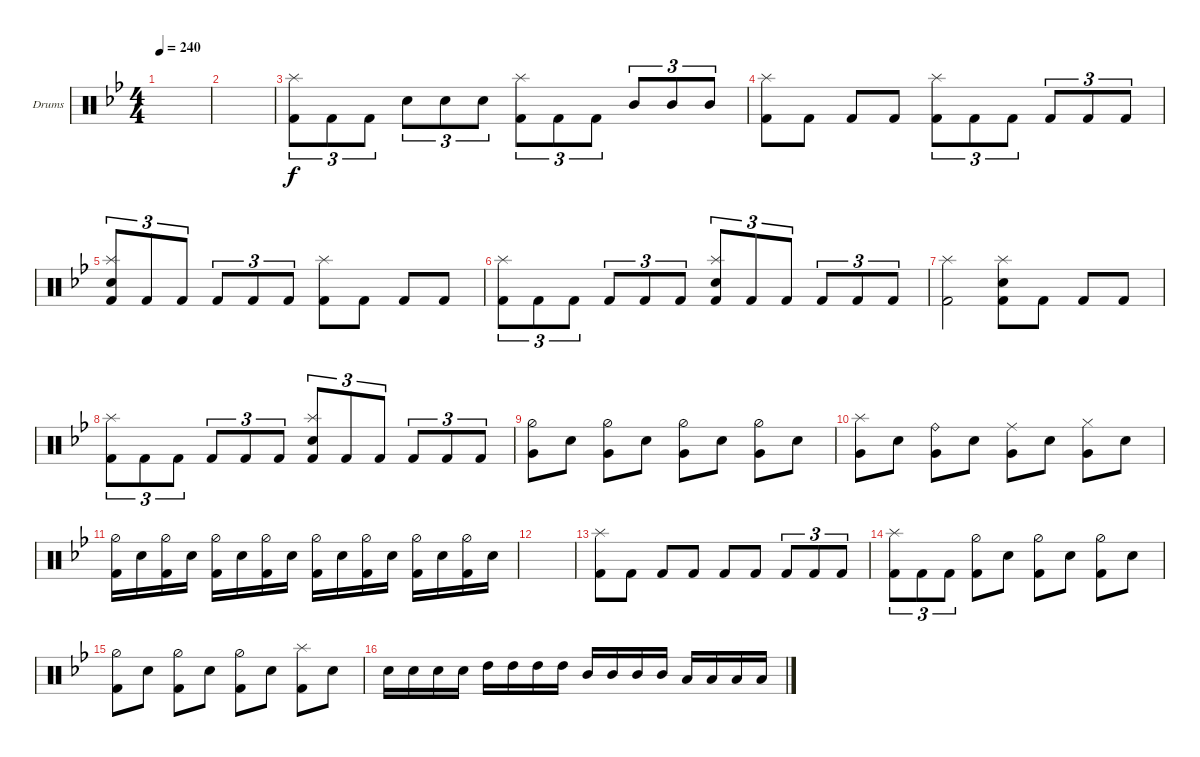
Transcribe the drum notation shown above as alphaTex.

\defaultSystemsLayout 4
\bracketExtendMode groupsimilarinstruments
\firstSystemTrackNameOrientation horizontal
\otherSystemsTrackNameOrientation horizontal
\track ("Drumkit" "Drums") {instrument percussion}
\staff {score}
\articulation defaults
\ts (4 4)
\tempo 240
\clef neutral
\ks bb
|
|
("Kick (hit) 2"{acc forcenatural} "Splash (hit)"{acc forcenatural}).8{tu (3 2) beam Down} "Kick (hit) 2"{acc forcenatural}.8{tu (3 2) beam Down} "Kick (hit) 2"{acc forcenatural}.8{tu (3 2) beam Down} "Snare (hit) 2"{acc forcenatural}.8{tu (3 2) beam Down} "Snare (hit) 2"{acc forcenatural}.8{tu (3 2) beam Down} "Snare (hit) 2"{acc forcenatural}.8{tu (3 2) beam Down} ("Kick (hit) 2"{acc forcenatural} "Splash (hit)"{acc forcenatural}).8{tu (3 2) beam Down} "Kick (hit) 2"{acc forcenatural}.8{tu (3 2) beam Down} "Kick (hit) 2"{acc forcenatural}.8{tu (3 2) beam Down} "Mid Tom (hit)"{acc forcenatural}.8{tu (3 2) beam Up} "Mid Tom (hit)"{acc forcenatural}.8{tu (3 2) beam Up} "Mid Tom (hit)"{acc forcenatural}.8{tu (3 2) beam Up} |
("Splash (hit)"{acc forcenatural} "Kick (hit) 2"{acc forcenatural}).8{beam Down} "Kick (hit) 2"{acc forcenatural}.8{beam Down} "Kick (hit) 2"{acc forcenatural}.8{beam Up} "Kick (hit) 2"{acc forcenatural}.8{beam Up} ("Kick (hit) 2"{acc forcenatural} "Splash (hit)"{acc forcenatural}).8{tu (3 2) beam Down} "Kick (hit) 2"{acc forcenatural}.8{tu (3 2) beam Down} "Kick (hit) 2"{acc forcenatural}.8{tu (3 2) beam Down} "Kick (hit) 2"{acc forcenatural}.8{tu (3 2) beam Up} "Kick (hit) 2"{acc forcenatural}.8{tu (3 2) beam Up} "Kick (hit) 2"{acc forcenatural}.8{tu (3 2) beam Up} |
("Kick (hit) 2"{acc forcenatural} "Splash (hit)"{acc forcenatural} "Snare (hit) 2"{acc forcenatural}).8{tu (3 2) beam Up} "Kick (hit) 2"{acc forcenatural}.8{tu (3 2) beam Up} "Kick (hit) 2"{acc forcenatural}.8{tu (3 2) beam Up} "Kick (hit) 2"{acc forcenatural}.8{tu (3 2) beam Up} "Kick (hit) 2"{acc forcenatural}.8{tu (3 2) beam Up} "Kick (hit) 2"{acc forcenatural}.8{tu (3 2) beam Up} ("Kick (hit) 2"{acc forcenatural} "Splash (hit)"{acc forcenatural}).8{beam Down} "Kick (hit) 2"{acc forcenatural}.8{beam Down} "Kick (hit) 2"{acc forcenatural}.8{beam Up} "Kick (hit) 2"{acc forcenatural}.8{beam Up} |
("Kick (hit) 2"{acc forcenatural} "Splash (hit)"{acc forcenatural}).8{tu (3 2) beam Down} "Kick (hit) 2"{acc forcenatural}.8{tu (3 2) beam Down} "Kick (hit) 2"{acc forcenatural}.8{tu (3 2) beam Down} "Kick (hit) 2"{acc forcenatural}.8{tu (3 2) beam Up} "Kick (hit) 2"{acc forcenatural}.8{tu (3 2) beam Up} "Kick (hit) 2"{acc forcenatural}.8{tu (3 2) beam Up} ("Kick (hit) 2"{acc forcenatural} "Splash (hit)"{acc forcenatural} "Snare (hit) 2"{acc forcenatural}).8{tu (3 2) beam Up} "Kick (hit) 2"{acc forcenatural}.8{tu (3 2) beam Up} "Kick (hit) 2"{acc forcenatural}.8{tu (3 2) beam Up} "Kick (hit) 2"{acc forcenatural}.8{tu (3 2) beam Up} "Kick (hit) 2"{acc forcenatural}.8{tu (3 2) beam Up} "Kick (hit) 2"{acc forcenatural}.8{tu (3 2) beam Up} |
("Kick (hit) 2"{acc forcenatural} "Splash (hit)"{acc forcenatural}).2{beam Down} ("Kick (hit) 2"{acc forcenatural} "Splash (hit)"{acc forcenatural} "Snare (hit) 2"{acc forcenatural}).8{beam Down} "Kick (hit) 2"{acc forcenatural}.8{beam Down} "Kick (hit) 2"{acc forcenatural}.8{beam Up} "Kick (hit) 2"{acc forcenatural}.8{beam Up} |
("Kick (hit) 2"{acc forcenatural} "Splash (hit)"{acc forcenatural}).8{tu (3 2) beam Down} "Kick (hit) 2"{acc forcenatural}.8{tu (3 2) beam Down} "Kick (hit) 2"{acc forcenatural}.8{tu (3 2) beam Down} "Kick (hit) 2"{acc forcenatural}.8{tu (3 2) beam Up} "Kick (hit) 2"{acc forcenatural}.8{tu (3 2) beam Up} "Kick (hit) 2"{acc forcenatural}.8{tu (3 2) beam Up} ("Kick (hit) 2"{acc forcenatural} "Splash (hit)"{acc forcenatural} "Snare (hit) 2"{acc forcenatural}).8{tu (3 2) beam Up} "Kick (hit) 2"{acc forcenatural}.8{tu (3 2) beam Up} "Kick (hit) 2"{acc forcenatural}.8{tu (3 2) beam Up} "Kick (hit) 2"{acc forcenatural}.8{tu (3 2) beam Up} "Kick (hit) 2"{acc forcenatural}.8{tu (3 2) beam Up} "Kick (hit) 2"{acc forcenatural}.8{tu (3 2) beam Up} |
("Very Low Tom (hit)"{acc forcenatural} "Hi-Hat (half)"{acc forcenatural}).8{beam Down} "Snare (hit) 2"{acc forcenatural}.8{beam Down} ("Very Low Tom (hit)"{acc forcenatural} "Hi-Hat (half)"{acc forcenatural}).8{beam Down} "Snare (hit) 2"{acc forcenatural}.8{beam Down} ("Very Low Tom (hit)"{acc forcenatural} "Hi-Hat (half)"{acc forcenatural}).8{beam Down} "Snare (hit) 2"{acc forcenatural}.8{beam Down} ("Very Low Tom (hit)"{acc forcenatural} "Hi-Hat (half)"{acc forcenatural}).8{beam Down} "Snare (hit) 2"{acc forcenatural}.8{beam Down} |
("Very Low Tom (hit)"{acc forcenatural} "Splash (hit)"{acc forcenatural}).8{beam Down} "Snare (hit) 2"{acc forcenatural}.8{beam Down} ("Very Low Tom (hit)"{acc forcenatural} "Ride (bell)"{acc forcenatural}).8{beam Down} "Snare (hit) 2"{acc forcenatural}.8{beam Down} ("Very Low Tom (hit)"{acc forcenatural} "Ride (middle)"{acc forcenatural}).8{beam Down} "Snare (hit) 2"{acc forcenatural}.8{beam Down} ("Very Low Tom (hit)"{acc forcenatural} "Hi-Hat (closed)"{acc forcenatural}).8{beam Down} "Snare (hit) 2"{acc forcenatural}.8{beam Down} |
("Hi-Hat (half)"{acc forcenatural} "Kick (hit) 2"{acc forcenatural}).16{beam Down} "Snare (hit) 2"{acc forcenatural}.16{beam Down} ("Hi-Hat (half)"{acc forcenatural} "Kick (hit) 2"{acc forcenatural}).16{beam Down} "Snare (hit) 2"{acc forcenatural}.16{beam Down} ("Hi-Hat (half)"{acc forcenatural} "Kick (hit) 2"{acc forcenatural}).16{beam Down} "Snare (hit) 2"{acc forcenatural}.16{beam Down} ("Hi-Hat (half)"{acc forcenatural} "Kick (hit) 2"{acc forcenatural}).16{beam Down} "Snare (hit) 2"{acc forcenatural}.16{beam Down} ("Hi-Hat (half)"{acc forcenatural} "Kick (hit) 2"{acc forcenatural}).16{beam Down} "Snare (hit) 2"{acc forcenatural}.16{beam Down} ("Hi-Hat (half)"{acc forcenatural} "Kick (hit) 2"{acc forcenatural}).16{beam Down} "Snare (hit) 2"{acc forcenatural}.16{beam Down} ("Hi-Hat (half)"{acc forcenatural} "Kick (hit) 2"{acc forcenatural}).16{beam Down} "Snare (hit) 2"{acc forcenatural}.16{beam Down} ("Hi-Hat (half)"{acc forcenatural} "Kick (hit) 2"{acc forcenatural}).16{beam Down} "Snare (hit) 2"{acc forcenatural}.16{beam Down} |
|
("Splash (hit)"{acc forcenatural} "Kick (hit) 2"{acc forcenatural}).8{beam Down} "Kick (hit) 2"{acc forcenatural}.8{beam Down} "Kick (hit) 2"{acc forcenatural}.8{beam Up} "Kick (hit) 2"{acc forcenatural}.8{beam Up} "Kick (hit) 2"{acc forcenatural}.8{beam Up} "Kick (hit) 2"{acc forcenatural}.8{beam Up} "Kick (hit) 2"{acc forcenatural}.8{tu (3 2) beam Up} "Kick (hit) 2"{acc forcenatural}.8{tu (3 2) beam Up} "Kick (hit) 2"{acc forcenatural}.8{tu (3 2) beam Up} |
("Kick (hit) 2"{acc forcenatural} "Splash (hit)"{acc forcenatural}).8{tu (3 2) beam Down} "Kick (hit) 2"{acc forcenatural}.8{tu (3 2) beam Down} "Kick (hit) 2"{acc forcenatural}.8{tu (3 2) beam Down} ("Hi-Hat (half)"{acc forcenatural} "Kick (hit) 2"{acc forcenatural}).8{beam Down} "Snare (hit) 2"{acc forcenatural}.8{beam Down} ("Hi-Hat (half)"{acc forcenatural} "Kick (hit) 2"{acc forcenatural}).8{beam Down} "Snare (hit) 2"{acc forcenatural}.8{beam Down} ("Hi-Hat (half)"{acc forcenatural} "Kick (hit) 2"{acc forcenatural}).8{beam Down} "Snare (hit) 2"{acc forcenatural}.8{beam Down} |
("Hi-Hat (half)"{acc forcenatural} "Kick (hit) 2"{acc forcenatural}).8{beam Down} "Snare (hit) 2"{acc forcenatural}.8{beam Down} ("Hi-Hat (half)"{acc forcenatural} "Kick (hit) 2"{acc forcenatural}).8{beam Down} "Snare (hit) 2"{acc forcenatural}.8{beam Down} ("Hi-Hat (half)"{acc forcenatural} "Kick (hit) 2"{acc forcenatural}).8{beam Down} "Snare (hit) 2"{acc forcenatural}.8{beam Down} ("Kick (hit) 2"{acc forcenatural} "Splash (hit)"{acc forcenatural}).8{beam Down} "Snare (hit) 2"{acc forcenatural}.8{beam Down} |
"Snare (hit) 2"{acc forcenatural}.16{beam Down} "Snare (hit) 2"{acc forcenatural}.16{beam Down} "Snare (hit) 2"{acc forcenatural}.16{beam Down} "Snare (hit) 2"{acc forcenatural}.16{beam Down} "High Tom (hit)"{acc forcenatural}.16{beam Down} "High Tom (hit)"{acc forcenatural}.16{beam Down} "High Tom (hit)"{acc forcenatural}.16{beam Down} "High Tom (hit)"{acc forcenatural}.16{beam Down} "Mid Tom (hit)"{acc forcenatural}.16{beam Up} "Mid Tom (hit)"{acc forcenatural}.16{beam Up} "Mid Tom (hit)"{acc forcenatural}.16{beam Up} "Mid Tom (hit)"{acc forcenatural}.16{beam Up} "Low Tom (hit)"{acc forcenatural}.16{beam Up} "Low Tom (hit)"{acc forcenatural}.16{beam Up} "Low Tom (hit)"{acc forcenatural}.16{beam Up} "Low Tom (hit)"{acc forcenatural}.16{beam Up}
